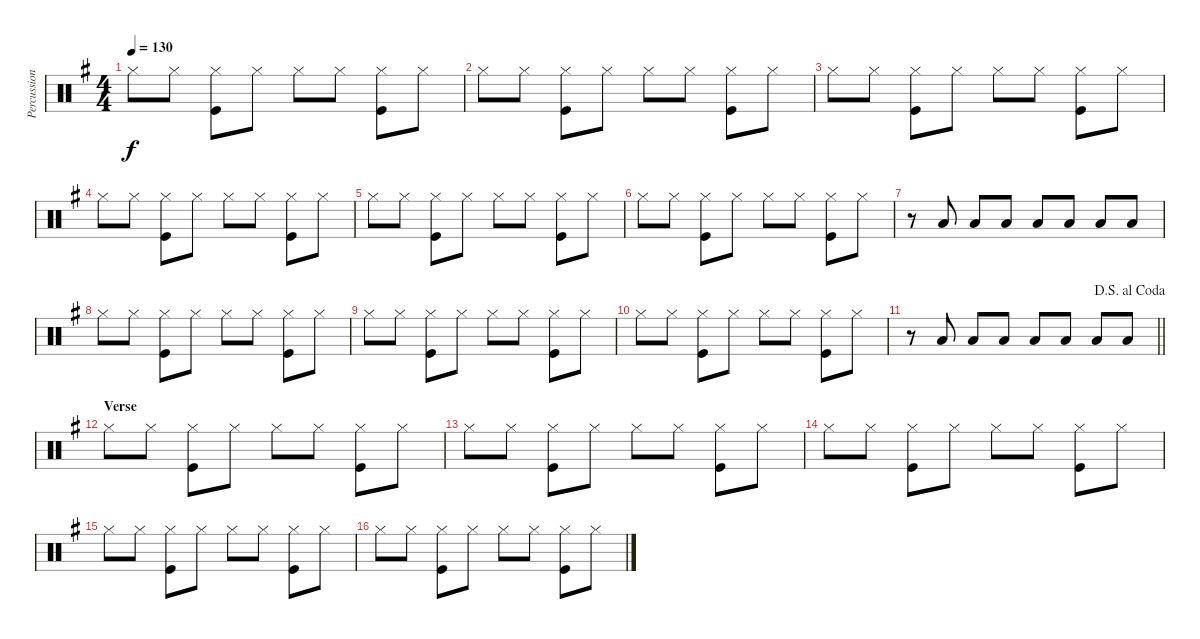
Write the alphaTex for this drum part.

\track ("Percussion" "Percussion") {instrument percussion}
\staff {score}
\articulation defaults
\ts (4 4)
\tempo 130
\clef neutral
\ks g "Hi-Hat (closed)".8{dy f} "Hi-Hat (closed)".8
("Hi-Hat (closed)" "Kick (hit)").8 "Hi-Hat (closed)".8 "Hi-Hat (closed)".8 "Hi-Hat (closed)".8 ("Hi-Hat (closed)" "Kick (hit)").8 "Hi-Hat (closed)".8 |
"Hi-Hat (closed)".8 "Hi-Hat (closed)".8 ("Hi-Hat (closed)" "Kick (hit)").8 "Hi-Hat (closed)".8 "Hi-Hat (closed)".8 "Hi-Hat (closed)".8 ("Hi-Hat (closed)" "Kick (hit)").8 "Hi-Hat (closed)".8 |
"Hi-Hat (closed)".8 "Hi-Hat (closed)".8 ("Hi-Hat (closed)" "Kick (hit)").8 "Hi-Hat (closed)".8 "Hi-Hat (closed)".8 "Hi-Hat (closed)".8 ("Hi-Hat (closed)" "Kick (hit)").8 "Hi-Hat (closed)".8 |
"Hi-Hat (closed)".8 "Hi-Hat (closed)".8 ("Hi-Hat (closed)" "Kick (hit)").8 "Hi-Hat (closed)".8 "Hi-Hat (closed)".8 "Hi-Hat (closed)".8 ("Hi-Hat (closed)" "Kick (hit)").8 "Hi-Hat (closed)".8 |
"Hi-Hat (closed)".8 "Hi-Hat (closed)".8 ("Hi-Hat (closed)" "Kick (hit)").8 "Hi-Hat (closed)".8 "Hi-Hat (closed)".8 "Hi-Hat (closed)".8 ("Hi-Hat (closed)" "Kick (hit)").8 "Hi-Hat (closed)".8 |
"Hi-Hat (closed)".8 "Hi-Hat (closed)".8 ("Hi-Hat (closed)" "Kick (hit)").8 "Hi-Hat (closed)".8 "Hi-Hat (closed)".8 "Hi-Hat (closed)".8 ("Hi-Hat (closed)" "Kick (hit)").8 "Hi-Hat (closed)".8 |
r.8 "Low Tom (hit)".8 "Low Tom (hit)".8 "Low Tom (hit)".8 "Low Tom (hit)".8 "Low Tom (hit)".8 "Low Tom (hit)".8 "Low Tom (hit)".8 |
"Hi-Hat (closed)".8 "Hi-Hat (closed)".8 ("Hi-Hat (closed)" "Kick (hit)").8 "Hi-Hat (closed)".8 "Hi-Hat (closed)".8 "Hi-Hat (closed)".8 ("Hi-Hat (closed)" "Kick (hit)").8 "Hi-Hat (closed)".8 |
"Hi-Hat (closed)".8 "Hi-Hat (closed)".8 ("Hi-Hat (closed)" "Kick (hit)").8 "Hi-Hat (closed)".8 "Hi-Hat (closed)".8 "Hi-Hat (closed)".8 ("Hi-Hat (closed)" "Kick (hit)").8 "Hi-Hat (closed)".8 |
"Hi-Hat (closed)".8 "Hi-Hat (closed)".8 ("Hi-Hat (closed)" "Kick (hit)").8 "Hi-Hat (closed)".8 "Hi-Hat (closed)".8 "Hi-Hat (closed)".8 ("Hi-Hat (closed)" "Kick (hit)").8 "Hi-Hat (closed)".8 |
\jump dalsegnoalcoda
\barLineRight lightlight
r.8 "Low Tom (hit)".8 "Low Tom (hit)".8 "Low Tom (hit)".8 "Low Tom (hit)".8 "Low Tom (hit)".8 "Low Tom (hit)".8 "Low Tom (hit)".8 |
\section ("" "Verse")
"Hi-Hat (closed)".8 "Hi-Hat (closed)".8 ("Hi-Hat (closed)" "Kick (hit)").8 "Hi-Hat (closed)".8 "Hi-Hat (closed)".8 "Hi-Hat (closed)".8 ("Hi-Hat (closed)" "Kick (hit)").8 "Hi-Hat (closed)".8 |
"Hi-Hat (closed)".8 "Hi-Hat (closed)".8 ("Hi-Hat (closed)" "Kick (hit)").8 "Hi-Hat (closed)".8 "Hi-Hat (closed)".8 "Hi-Hat (closed)".8 ("Hi-Hat (closed)" "Kick (hit)").8 "Hi-Hat (closed)".8 |
"Hi-Hat (closed)".8 "Hi-Hat (closed)".8 ("Hi-Hat (closed)" "Kick (hit)").8 "Hi-Hat (closed)".8 "Hi-Hat (closed)".8 "Hi-Hat (closed)".8 ("Hi-Hat (closed)" "Kick (hit)").8 "Hi-Hat (closed)".8 |
"Hi-Hat (closed)".8 "Hi-Hat (closed)".8 ("Hi-Hat (closed)" "Kick (hit)").8 "Hi-Hat (closed)".8 "Hi-Hat (closed)".8 "Hi-Hat (closed)".8 ("Hi-Hat (closed)" "Kick (hit)").8 "Hi-Hat (closed)".8 |
"Hi-Hat (closed)".8 "Hi-Hat (closed)".8 ("Hi-Hat (closed)" "Kick (hit)").8 "Hi-Hat (closed)".8 "Hi-Hat (closed)".8 "Hi-Hat (closed)".8 ("Hi-Hat (closed)" "Kick (hit)").8 "Hi-Hat (closed)".8
